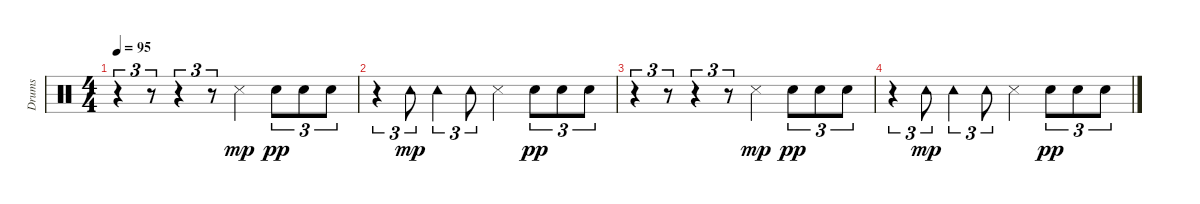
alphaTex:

\track ("Drums" "Drums") {instrument percussion}
\staff {score}
\articulation defaults
\ts (4 4)
\tempo 95
\clef neutral
\ks aminor
r.4{tu (3 2) dy pp} r.8{tu (3 2)} r.4{tu (3 2)} r.8{tu (3 2)} "Snare (side stick) 3".4{dy mp} "Snare (hit) 2".8{tu (3 2) dy pp} "Snare (hit) 2".8{tu (3 2)} "Snare (hit) 2".8{tu (3 2)} |
r.4{tu (3 2)} "Tambourine (hit)".8{tu (3 2) dy mp} "Tambourine (hit)".4{tu (3 2)} "Tambourine (hit)".8{tu (3 2)} "Snare (side stick) 3".4 "Snare (hit) 2".8{tu (3 2) dy pp} "Snare (hit) 2".8{tu (3 2)} "Snare (hit) 2".8{tu (3 2)} |
r.4{tu (3 2)} r.8{tu (3 2)} r.4{tu (3 2)} r.8{tu (3 2)} "Snare (side stick) 3".4{dy mp} "Snare (hit) 2".8{tu (3 2) dy pp} "Snare (hit) 2".8{tu (3 2)} "Snare (hit) 2".8{tu (3 2)} |
r.4{tu (3 2)} "Tambourine (hit)".8{tu (3 2) dy mp} "Tambourine (hit)".4{tu (3 2)} "Tambourine (hit)".8{tu (3 2)} "Snare (side stick) 3".4 "Snare (hit) 2".8{tu (3 2) dy pp} "Snare (hit) 2".8{tu (3 2)} "Snare (hit) 2".8{tu (3 2)}
